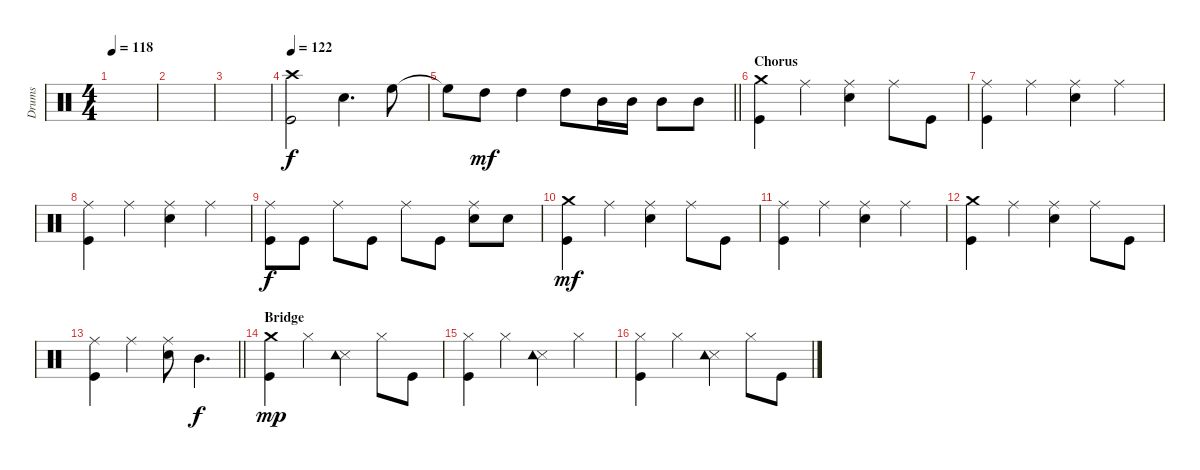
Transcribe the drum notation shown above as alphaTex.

\track ("Drums" "Drums") {instrument percussion}
\staff {score}
\articulation defaults
\ts (4 4)
\tempo 118
\clef neutral
\ks c
|
|
|
\tempo 122
("Kick (hit)" "Crash high (hit)").2 "Snare (hit) 2".4{d} "High Floor Tom (hit)".8 |
\barLineRight lightlight "High Floor Tom (hit)"{t}.8{dy f} "High Tom (hit)".8{dy mf} "High Tom (hit)".4 "High Tom (hit)".8 "Mid Tom (hit)".16 "Mid Tom (hit)".16 "Mid Tom (hit)".8 "Mid Tom (hit)".8
|
\section ("" "Chorus")
("Kick (hit)" "Crash medium (hit)").4 "Ride (middle)".4 ("Snare (hit) 2" "Ride (middle)").4 "Ride (middle)".8 "Kick (hit)".8 |
("Kick (hit)" "Ride (middle)").4 "Ride (middle)".4 ("Snare (hit) 2" "Ride (middle)").4 "Ride (middle)".4 |
("Kick (hit)" "Ride (middle)").4 "Ride (middle)".4 ("Snare (hit) 2" "Ride (middle)").4 "Ride (middle)".4 |
("Kick (hit)" "Ride (middle)").8{dy f} "Kick (hit)".8 "Ride (middle)".8 "Kick (hit)".8 "Ride (middle)".8 "Kick (hit)".8 ("Snare (hit) 2" "Ride (middle)").8 "Snare (hit) 2".8 |
("Kick (hit)" "Crash medium (hit)").4{dy mf} "Ride (middle)".4 ("Snare (hit) 2" "Ride (middle)").4 "Ride (middle)".8 "Kick (hit)".8 |
("Kick (hit)" "Ride (middle)").4 "Ride (middle)".4 ("Snare (hit) 2" "Ride (middle)").4 "Ride (middle)".4 |
("Kick (hit)" "Crash medium (hit)").4 "Ride (middle)".4 ("Snare (hit) 2" "Ride (middle)").4 "Ride (middle)".8 "Kick (hit)".8 |
\barLineRight lightlight
("Kick (hit)" "Ride (middle)").4 "Ride (middle)".4 ("Snare (hit) 2" "Ride (middle)").8 "Mid Tom (hit)".4{d dy f} |
\section ("" "Bridge")
("Kick (hit)" "Crash medium (hit)").4{dy mp} "Hi-Hat (closed)".4 ("Snare (side stick) 3" "Tambourine (hit)").4 "Hi-Hat (closed)".8 "Kick (hit)".8 |
("Kick (hit)" "Hi-Hat (closed)").4 "Hi-Hat (closed)".4 ("Snare (side stick) 3" "Tambourine (hit)").4 "Hi-Hat (closed)".4 |
("Kick (hit)" "Hi-Hat (closed)").4 "Hi-Hat (closed)".4 ("Snare (side stick) 3" "Tambourine (hit)").4 "Hi-Hat (closed)".8 "Kick (hit)".8
